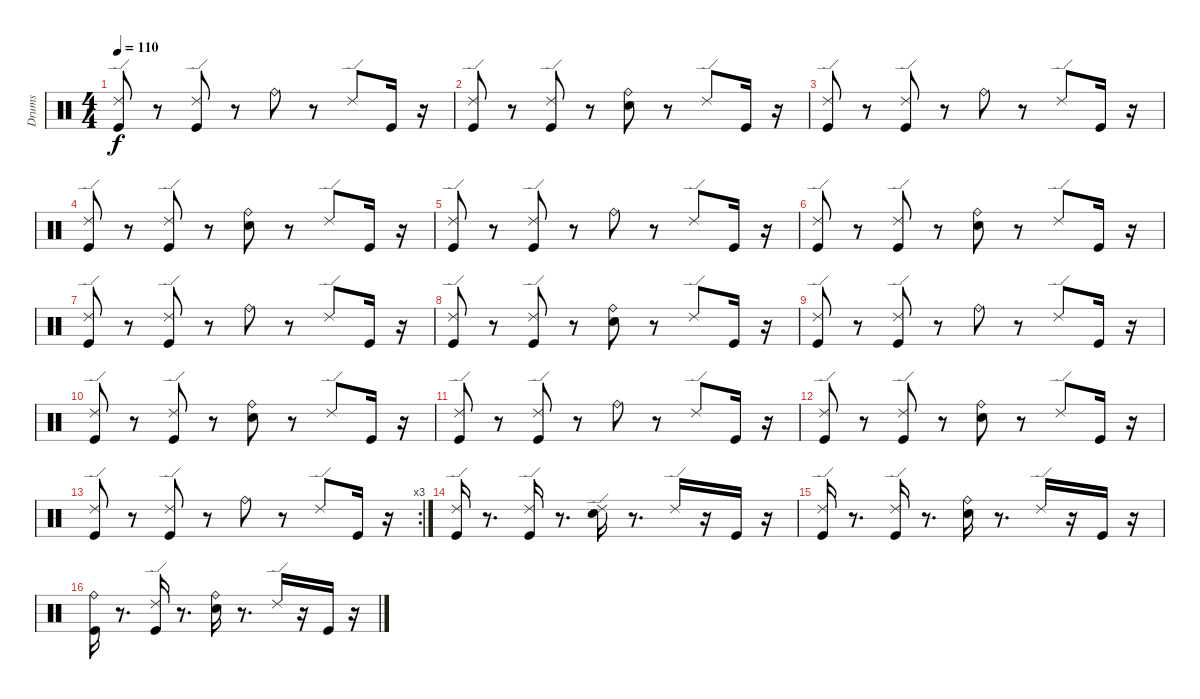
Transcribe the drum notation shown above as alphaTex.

\track ("Drums" "Drums") {instrument percussion}
\staff {score}
\articulation defaults
\ts (4 4)
\tempo 110
\clef neutral
\ks c
("Ride (edge) 2" "Kick (hit)").8{dy f} r.8 ("Ride (edge) 2" "Kick (hit)").8 r.8 "Ride (bell)".8 r.8 "Ride (edge) 2".8 "Kick (hit)".16 r.16 |
("Ride (edge) 2" "Kick (hit)").8 r.8 ("Ride (edge) 2" "Kick (hit)").8 r.8 ("Ride (bell)" "Electric Snare (hit)").8 r.8 "Ride (edge) 2".8 "Kick (hit)".16 r.16 |
("Ride (edge) 2" "Kick (hit)").8 r.8 ("Ride (edge) 2" "Kick (hit)").8 r.8 "Ride (bell)".8 r.8 "Ride (edge) 2".8 "Kick (hit)".16 r.16 |
("Ride (edge) 2" "Kick (hit)").8 r.8 ("Ride (edge) 2" "Kick (hit)").8 r.8 ("Ride (bell)" "Electric Snare (hit)").8 r.8 "Ride (edge) 2".8 "Kick (hit)".16 r.16 |
("Ride (edge) 2" "Kick (hit)").8 r.8 ("Ride (edge) 2" "Kick (hit)").8 r.8 "Ride (bell)".8 r.8 "Ride (edge) 2".8 "Kick (hit)".16 r.16 |
("Ride (edge) 2" "Kick (hit)").8 r.8 ("Ride (edge) 2" "Kick (hit)").8 r.8 ("Ride (bell)" "Electric Snare (hit)").8 r.8 "Ride (edge) 2".8 "Kick (hit)".16 r.16 |
("Ride (edge) 2" "Kick (hit)").8 r.8 ("Ride (edge) 2" "Kick (hit)").8 r.8 "Ride (bell)".8 r.8 "Ride (edge) 2".8 "Kick (hit)".16 r.16 |
("Ride (edge) 2" "Kick (hit)").8 r.8 ("Ride (edge) 2" "Kick (hit)").8 r.8 ("Ride (bell)" "Electric Snare (hit)").8 r.8 "Ride (edge) 2".8 "Kick (hit)".16 r.16 |
("Ride (edge) 2" "Kick (hit)").8 r.8 ("Ride (edge) 2" "Kick (hit)").8 r.8 "Ride (bell)".8 r.8 "Ride (edge) 2".8 "Kick (hit)".16 r.16 |
("Ride (edge) 2" "Kick (hit)").8 r.8 ("Ride (edge) 2" "Kick (hit)").8 r.8 ("Ride (bell)" "Electric Snare (hit)").8 r.8 "Ride (edge) 2".8 "Kick (hit)".16 r.16 |
("Ride (edge) 2" "Kick (hit)").8 r.8 ("Ride (edge) 2" "Kick (hit)").8 r.8 "Ride (bell)".8 r.8 "Ride (edge) 2".8 "Kick (hit)".16 r.16 |
("Ride (edge) 2" "Kick (hit)").8 r.8 ("Ride (edge) 2" "Kick (hit)").8 r.8 ("Ride (bell)" "Electric Snare (hit)").8 r.8 "Ride (edge) 2".8 "Kick (hit)".16 r.16 |
\rc 3
("Ride (edge) 2" "Kick (hit)").8 r.8 ("Ride (edge) 2" "Kick (hit)").8 r.8 "Ride (bell)".8 r.8 "Ride (edge) 2".8 "Kick (hit)".16 r.16 |
("Ride (edge) 2" "Kick (hit)").16 r.8{d} ("Ride (edge) 2" "Kick (hit)").16 r.8{d} ("Ride (edge) 2" "Snare (hit) 2").16 r.8{d} "Ride (edge) 2".16 r.16 "Kick (hit)".16 r.16 |
("Ride (edge) 2" "Kick (hit)").16 r.8{d} ("Ride (edge) 2" "Kick (hit)").16 r.8{d} ("Snare (hit) 2" "Ride (bell)").16 r.8{d} "Ride (edge) 2".16 r.16 "Kick (hit)".16 r.16 |
("Ride (bell)" "Kick (hit)").16 r.8{d} ("Ride (edge) 2" "Kick (hit)").16 r.8{d} ("Ride (bell)" "Electric Snare (hit)").16 r.8{d} "Ride (edge) 2".16 r.16 "Kick (hit)".16 r.16
